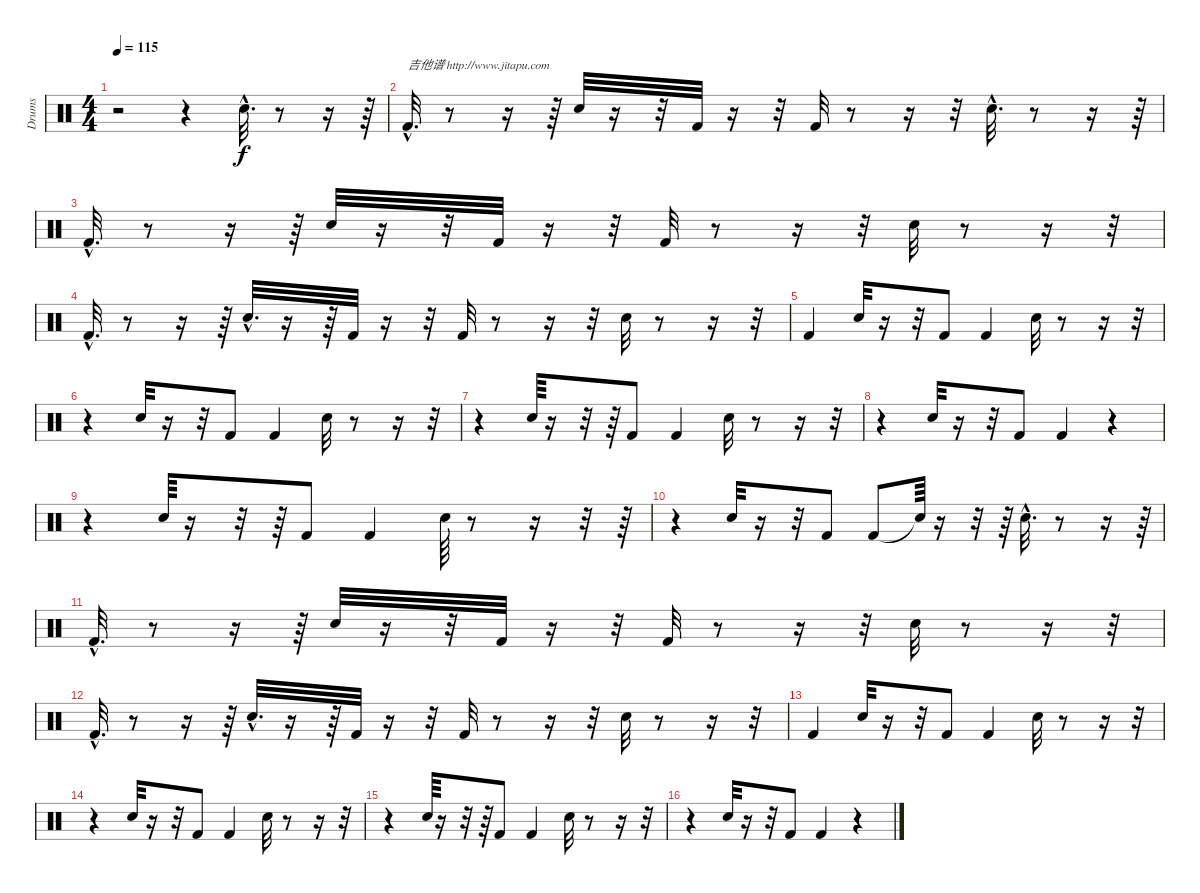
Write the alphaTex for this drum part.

\track ("Drums               " "Drums     ") {instrument percussion}
\staff {score}
\articulation defaults
\ts (4 4)
\tempo 115
\clef neutral
\ks c
r.2{dy f} r.4 "Snare (hit) 2"{hac}.32{d} r.8 r.16 r.64 |
"Kick (hit) 2"{hac}.32{d txt "吉他谱 http://www.jitapu.com"} r.8 r.16 r.64 "Snare (hit) 2".32 r.16 r.32 "Kick (hit) 2".32 r.16 r.32 "Kick (hit) 2".32 r.8 r.16 r.32 "Snare (hit) 2"{hac}.32{d} r.8 r.16 r.64 |
"Kick (hit) 2"{hac}.32{d} r.8 r.16 r.64 "Snare (hit) 2".32 r.16 r.32 "Kick (hit) 2".32 r.16 r.32 "Kick (hit) 2".32 r.8 r.16 r.32 "Snare (hit) 2".32 r.8 r.16 r.32 |
"Kick (hit) 2"{hac}.32{d} r.8 r.16 r.64 "Snare (hit) 2"{hac}.32{d} r.16 r.64 "Kick (hit) 2".32 r.16 r.32 "Kick (hit) 2".32 r.8 r.16 r.32 "Snare (hit) 2".32 r.8 r.16 r.32 |
"Kick (hit) 2".4 "Snare (hit) 2".32 r.16 r.32 "Kick (hit) 2".8 "Kick (hit) 2".4 "Snare (hit) 2".32 r.8 r.16 r.32 |
r.4 "Snare (hit) 2".32 r.16 r.32 "Kick (hit) 2".8 "Kick (hit) 2".4 "Snare (hit) 2".32 r.8 r.16 r.32 |
r.4 "Snare (hit) 2".64 r.16 r.32 r.64 "Kick (hit) 2".8 "Kick (hit) 2".4 "Snare (hit) 2".32 r.8 r.16 r.32 |
r.4 "Snare (hit) 2".32 r.16 r.32 "Kick (hit) 2".8 "Kick (hit) 2".4 r.4 |
r.4 "Snare (hit) 2".64 r.16 r.32 r.64 "Kick (hit) 2".8 "Kick (hit) 2".4 "Snare (hit) 2".64 r.8 r.16 r.32 r.64 |
r.4 "Snare (hit) 2".32 r.16 r.32 "Kick (hit) 2".8 "Kick (hit) 2".8 "Snare (hit)"{t}.64 r.16 r.32 r.64 "Snare (hit) 2"{hac}.32{d} r.8 r.16 r.64 |
"Kick (hit) 2"{hac}.32{d} r.8 r.16 r.64 "Snare (hit) 2".32 r.16 r.32 "Kick (hit) 2".32 r.16 r.32 "Kick (hit) 2".32 r.8 r.16 r.32 "Snare (hit) 2".32 r.8 r.16 r.32 |
"Kick (hit) 2"{hac}.32{d} r.8 r.16 r.64 "Snare (hit) 2"{hac}.32{d} r.16 r.64 "Kick (hit) 2".32 r.16 r.32 "Kick (hit) 2".32 r.8 r.16 r.32 "Snare (hit) 2".32 r.8 r.16 r.32 |
"Kick (hit) 2".4 "Snare (hit) 2".32 r.16 r.32 "Kick (hit) 2".8 "Kick (hit) 2".4 "Snare (hit) 2".32 r.8 r.16 r.32 |
r.4 "Snare (hit) 2".32 r.16 r.32 "Kick (hit) 2".8 "Kick (hit) 2".4 "Snare (hit) 2".32 r.8 r.16 r.32 |
r.4 "Snare (hit) 2".64 r.16 r.32 r.64 "Kick (hit) 2".8 "Kick (hit) 2".4 "Snare (hit) 2".32 r.8 r.16 r.32 |
r.4 "Snare (hit) 2".32 r.16 r.32 "Kick (hit) 2".8 "Kick (hit) 2".4 r.4
